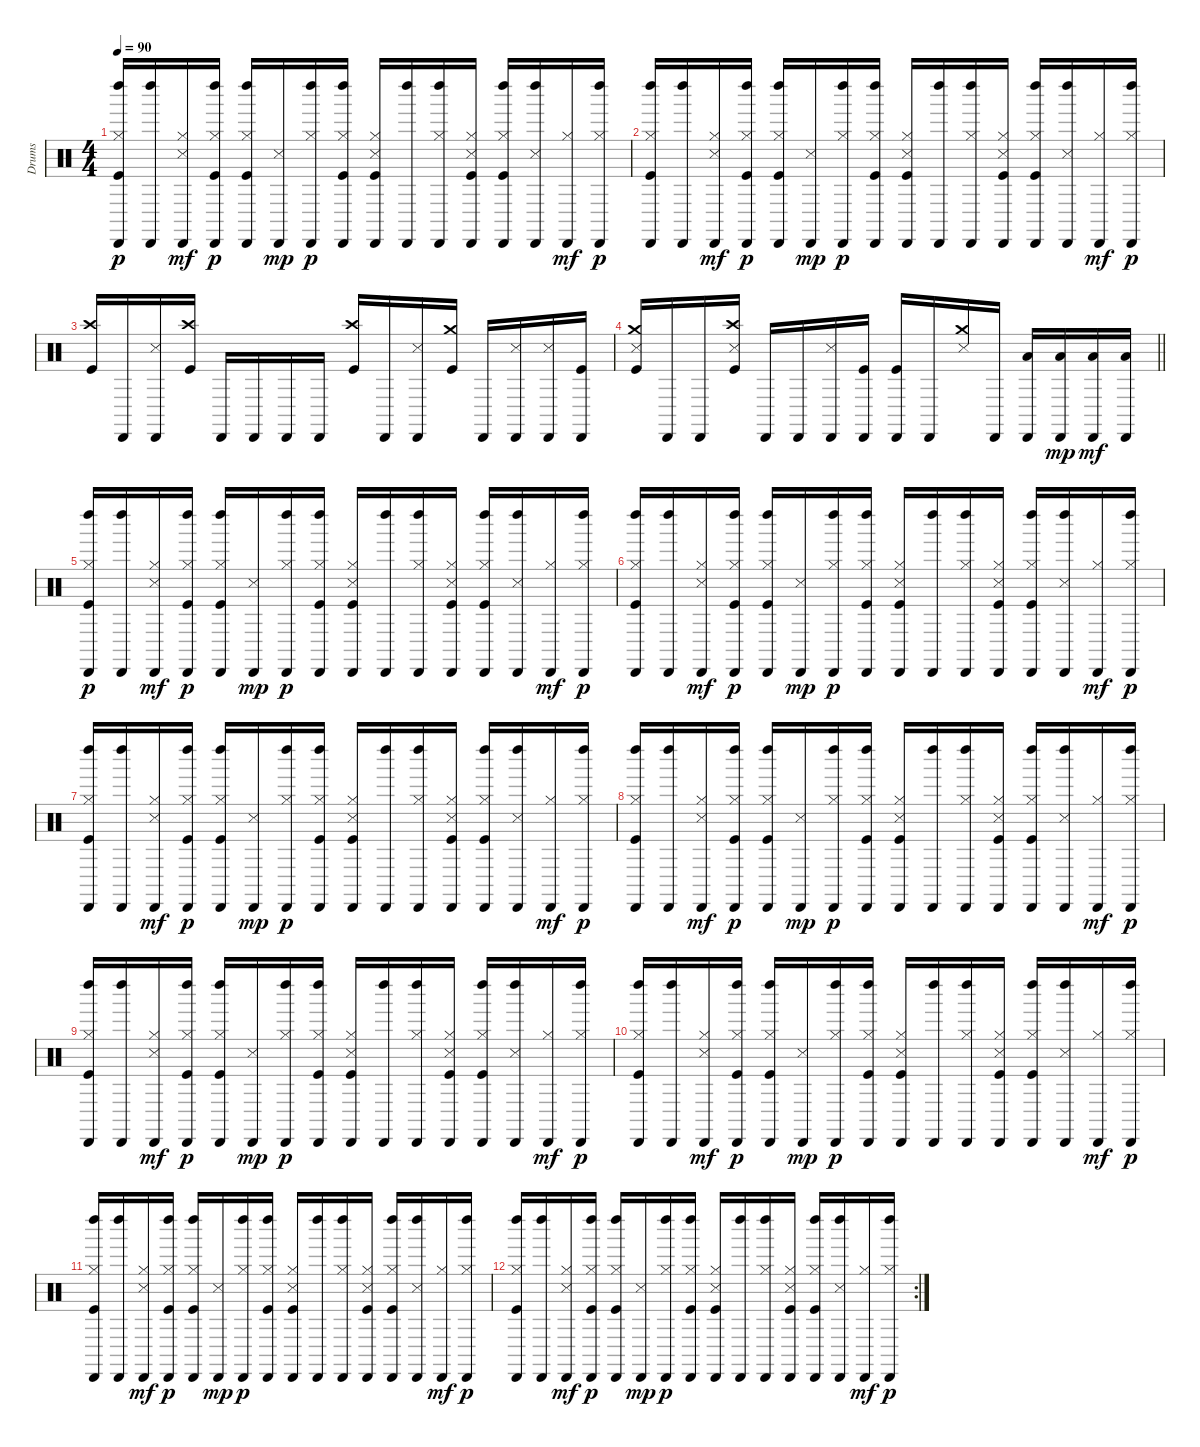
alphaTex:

\track ("Drums" "Drums") {instrument percussion}
\staff {score}
\articulation defaults
\ts (4 4)
\tempo 90
\clef neutral
\ks c
("Cabasa (hit)" "Hi-Hat (closed)" "Left Maraca (hit)" "Kick (hit)").16{dy p} ("Cabasa (hit)" "Left Maraca (hit)").16 ("Cabasa (hit)" "Hi-Hat (closed)" "Snare (side stick) 3").16{dy mf} ("Cabasa (hit)" "Hi-Hat (closed)" "Left Maraca (hit)" "Kick (hit)").16{dy p} ("Cabasa (hit)" "Hi-Hat (closed)" "Left Maraca (hit)" "Kick (hit)").16 ("Cabasa (hit)" "Snare (side stick) 3").16{dy mp} ("Cabasa (hit)" "Hi-Hat (closed)" "Left Maraca (hit)").16{dy p} ("Cabasa (hit)" "Hi-Hat (closed)" "Left Maraca (hit)" "Kick (hit)").16 ("Cabasa (hit)" "Hi-Hat (closed)" "Snare (side stick) 3" "Kick (hit)").16 ("Cabasa (hit)" "Left Maraca (hit)").16 ("Cabasa (hit)" "Hi-Hat (closed)" "Left Maraca (hit)").16 ("Cabasa (hit)" "Hi-Hat (closed)" "Snare (side stick) 3" "Kick (hit)").16 ("Cabasa (hit)" "Hi-Hat (closed)" "Left Maraca (hit)" "Kick (hit)").16 ("Cabasa (hit)" "Snare (side stick) 3" "Left Maraca (hit)").16 ("Cabasa (hit)" "Hi-Hat (closed)").16{dy mf} ("Cabasa (hit)" "Hi-Hat (closed)" "Left Maraca (hit)").16{dy p} |
("Cabasa (hit)" "Hi-Hat (closed)" "Left Maraca (hit)" "Kick (hit)").16 ("Cabasa (hit)" "Left Maraca (hit)").16 ("Cabasa (hit)" "Hi-Hat (closed)" "Snare (side stick) 3").16{dy mf} ("Cabasa (hit)" "Hi-Hat (closed)" "Left Maraca (hit)" "Kick (hit)").16{dy p} ("Cabasa (hit)" "Hi-Hat (closed)" "Left Maraca (hit)" "Kick (hit)").16 ("Cabasa (hit)" "Snare (side stick) 3").16{dy mp} ("Cabasa (hit)" "Hi-Hat (closed)" "Left Maraca (hit)").16{dy p} ("Cabasa (hit)" "Hi-Hat (closed)" "Left Maraca (hit)" "Kick (hit)").16 ("Cabasa (hit)" "Hi-Hat (closed)" "Snare (side stick) 3" "Kick (hit)").16 ("Cabasa (hit)" "Left Maraca (hit)").16 ("Cabasa (hit)" "Hi-Hat (closed)" "Left Maraca (hit)").16 ("Cabasa (hit)" "Hi-Hat (closed)" "Snare (side stick) 3" "Kick (hit)").16 ("Cabasa (hit)" "Hi-Hat (closed)" "Left Maraca (hit)" "Kick (hit)").16 ("Cabasa (hit)" "Snare (side stick) 3" "Left Maraca (hit)").16 ("Cabasa (hit)" "Hi-Hat (closed)").16{dy mf} ("Cabasa (hit)" "Hi-Hat (closed)" "Left Maraca (hit)").16{dy p} |
("Crash high (hit)" "Kick (hit)").16 "Cabasa (hit)".16 ("Cabasa (hit)" "Snare (side stick) 3").16 ("Crash high (hit)" "Kick (hit)").16 "Cabasa (hit)".16 "Cabasa (hit)".16 "Cabasa (hit)".16 "Cabasa (hit)".16 ("Crash high (hit)" "Kick (hit)").16 "Cabasa (hit)".16 ("Cabasa (hit)" "Snare (side stick) 3").16 ("Crash medium (hit)" "Kick (hit)").16 "Cabasa (hit)".16 ("Cabasa (hit)" "Snare (side stick) 3").16 ("Cabasa (hit)" "Snare (side stick) 3").16 ("Cabasa (hit)" "Kick (hit)").16 |
\barLineRight lightlight
("Crash medium (hit)" "Snare (side stick) 3" "Kick (hit)").16 "Cabasa (hit)".16 "Cabasa (hit)".16 ("Crash high (hit)" "Snare (side stick) 3" "Kick (hit)").16 "Cabasa (hit)".16 "Cabasa (hit)".16 ("Cabasa (hit)" "Snare (side stick) 3").16 ("Cabasa (hit)" "Kick (hit)").16 ("Cabasa (hit)" "Kick (hit)").16 "Cabasa (hit)".16 ("Crash medium (hit)" "Snare (side stick) 3").16 "Cabasa (hit)".16 ("Cabasa (hit)" "Low Floor Tom (hit)").16 ("Cabasa (hit)" "Low Floor Tom (hit)").16{dy mp} ("Cabasa (hit)" "Low Floor Tom (hit)").16{dy mf} ("Cabasa (hit)" "Low Floor Tom (hit)").16 |
("Cabasa (hit)" "Hi-Hat (closed)" "Left Maraca (hit)" "Kick (hit)").16{dy p} ("Cabasa (hit)" "Left Maraca (hit)").16 ("Cabasa (hit)" "Hi-Hat (closed)" "Snare (side stick) 3").16{dy mf} ("Cabasa (hit)" "Hi-Hat (closed)" "Left Maraca (hit)" "Kick (hit)").16{dy p} ("Cabasa (hit)" "Hi-Hat (closed)" "Left Maraca (hit)" "Kick (hit)").16 ("Cabasa (hit)" "Snare (side stick) 3").16{dy mp} ("Cabasa (hit)" "Hi-Hat (closed)" "Left Maraca (hit)").16{dy p} ("Cabasa (hit)" "Hi-Hat (closed)" "Left Maraca (hit)" "Kick (hit)").16 ("Cabasa (hit)" "Hi-Hat (closed)" "Snare (side stick) 3" "Kick (hit)").16 ("Cabasa (hit)" "Left Maraca (hit)").16 ("Cabasa (hit)" "Hi-Hat (closed)" "Left Maraca (hit)").16 ("Cabasa (hit)" "Hi-Hat (closed)" "Snare (side stick) 3" "Kick (hit)").16 ("Cabasa (hit)" "Hi-Hat (closed)" "Left Maraca (hit)" "Kick (hit)").16 ("Cabasa (hit)" "Snare (side stick) 3" "Left Maraca (hit)").16 ("Cabasa (hit)" "Hi-Hat (closed)").16{dy mf} ("Cabasa (hit)" "Hi-Hat (closed)" "Left Maraca (hit)").16{dy p} |
("Cabasa (hit)" "Hi-Hat (closed)" "Left Maraca (hit)" "Kick (hit)").16 ("Cabasa (hit)" "Left Maraca (hit)").16 ("Cabasa (hit)" "Hi-Hat (closed)" "Snare (side stick) 3").16{dy mf} ("Cabasa (hit)" "Hi-Hat (closed)" "Left Maraca (hit)" "Kick (hit)").16{dy p} ("Cabasa (hit)" "Hi-Hat (closed)" "Left Maraca (hit)" "Kick (hit)").16 ("Cabasa (hit)" "Snare (side stick) 3").16{dy mp} ("Cabasa (hit)" "Hi-Hat (closed)" "Left Maraca (hit)").16{dy p} ("Cabasa (hit)" "Hi-Hat (closed)" "Left Maraca (hit)" "Kick (hit)").16 ("Cabasa (hit)" "Hi-Hat (closed)" "Snare (side stick) 3" "Kick (hit)").16 ("Cabasa (hit)" "Left Maraca (hit)").16 ("Cabasa (hit)" "Hi-Hat (closed)" "Left Maraca (hit)").16 ("Cabasa (hit)" "Hi-Hat (closed)" "Snare (side stick) 3" "Kick (hit)").16 ("Cabasa (hit)" "Hi-Hat (closed)" "Left Maraca (hit)" "Kick (hit)").16 ("Cabasa (hit)" "Snare (side stick) 3" "Left Maraca (hit)").16 ("Cabasa (hit)" "Hi-Hat (closed)").16{dy mf} ("Cabasa (hit)" "Hi-Hat (closed)" "Left Maraca (hit)").16{dy p} |
("Cabasa (hit)" "Hi-Hat (closed)" "Left Maraca (hit)" "Kick (hit)").16 ("Cabasa (hit)" "Left Maraca (hit)").16 ("Cabasa (hit)" "Hi-Hat (closed)" "Snare (side stick) 3").16{dy mf} ("Cabasa (hit)" "Hi-Hat (closed)" "Left Maraca (hit)" "Kick (hit)").16{dy p} ("Cabasa (hit)" "Hi-Hat (closed)" "Left Maraca (hit)" "Kick (hit)").16 ("Cabasa (hit)" "Snare (side stick) 3").16{dy mp} ("Cabasa (hit)" "Hi-Hat (closed)" "Left Maraca (hit)").16{dy p} ("Cabasa (hit)" "Hi-Hat (closed)" "Left Maraca (hit)" "Kick (hit)").16 ("Cabasa (hit)" "Hi-Hat (closed)" "Snare (side stick) 3" "Kick (hit)").16 ("Cabasa (hit)" "Left Maraca (hit)").16 ("Cabasa (hit)" "Hi-Hat (closed)" "Left Maraca (hit)").16 ("Cabasa (hit)" "Hi-Hat (closed)" "Snare (side stick) 3" "Kick (hit)").16 ("Cabasa (hit)" "Hi-Hat (closed)" "Left Maraca (hit)" "Kick (hit)").16 ("Cabasa (hit)" "Snare (side stick) 3" "Left Maraca (hit)").16 ("Cabasa (hit)" "Hi-Hat (closed)").16{dy mf} ("Cabasa (hit)" "Hi-Hat (closed)" "Left Maraca (hit)").16{dy p} |
("Cabasa (hit)" "Hi-Hat (closed)" "Left Maraca (hit)" "Kick (hit)").16 ("Cabasa (hit)" "Left Maraca (hit)").16 ("Cabasa (hit)" "Hi-Hat (closed)" "Snare (side stick) 3").16{dy mf} ("Cabasa (hit)" "Hi-Hat (closed)" "Left Maraca (hit)" "Kick (hit)").16{dy p} ("Cabasa (hit)" "Hi-Hat (closed)" "Left Maraca (hit)" "Kick (hit)").16 ("Cabasa (hit)" "Snare (side stick) 3").16{dy mp} ("Cabasa (hit)" "Hi-Hat (closed)" "Left Maraca (hit)").16{dy p} ("Cabasa (hit)" "Hi-Hat (closed)" "Left Maraca (hit)" "Kick (hit)").16 ("Cabasa (hit)" "Hi-Hat (closed)" "Snare (side stick) 3" "Kick (hit)").16 ("Cabasa (hit)" "Left Maraca (hit)").16 ("Cabasa (hit)" "Hi-Hat (closed)" "Left Maraca (hit)").16 ("Cabasa (hit)" "Hi-Hat (closed)" "Snare (side stick) 3" "Kick (hit)").16 ("Cabasa (hit)" "Hi-Hat (closed)" "Left Maraca (hit)" "Kick (hit)").16 ("Cabasa (hit)" "Snare (side stick) 3" "Left Maraca (hit)").16 ("Cabasa (hit)" "Hi-Hat (closed)").16{dy mf} ("Cabasa (hit)" "Hi-Hat (closed)" "Left Maraca (hit)").16{dy p} |
("Cabasa (hit)" "Hi-Hat (closed)" "Left Maraca (hit)" "Kick (hit)").16 ("Cabasa (hit)" "Left Maraca (hit)").16 ("Cabasa (hit)" "Hi-Hat (closed)" "Snare (side stick) 3").16{dy mf} ("Cabasa (hit)" "Hi-Hat (closed)" "Left Maraca (hit)" "Kick (hit)").16{dy p} ("Cabasa (hit)" "Hi-Hat (closed)" "Left Maraca (hit)" "Kick (hit)").16 ("Cabasa (hit)" "Snare (side stick) 3").16{dy mp} ("Cabasa (hit)" "Hi-Hat (closed)" "Left Maraca (hit)").16{dy p} ("Cabasa (hit)" "Hi-Hat (closed)" "Left Maraca (hit)" "Kick (hit)").16 ("Cabasa (hit)" "Hi-Hat (closed)" "Snare (side stick) 3" "Kick (hit)").16 ("Cabasa (hit)" "Left Maraca (hit)").16 ("Cabasa (hit)" "Hi-Hat (closed)" "Left Maraca (hit)").16 ("Cabasa (hit)" "Hi-Hat (closed)" "Snare (side stick) 3" "Kick (hit)").16 ("Cabasa (hit)" "Hi-Hat (closed)" "Left Maraca (hit)" "Kick (hit)").16 ("Cabasa (hit)" "Snare (side stick) 3" "Left Maraca (hit)").16 ("Cabasa (hit)" "Hi-Hat (closed)").16{dy mf} ("Cabasa (hit)" "Hi-Hat (closed)" "Left Maraca (hit)").16{dy p} |
("Cabasa (hit)" "Hi-Hat (closed)" "Left Maraca (hit)" "Kick (hit)").16 ("Cabasa (hit)" "Left Maraca (hit)").16 ("Cabasa (hit)" "Hi-Hat (closed)" "Snare (side stick) 3").16{dy mf} ("Cabasa (hit)" "Hi-Hat (closed)" "Left Maraca (hit)" "Kick (hit)").16{dy p} ("Cabasa (hit)" "Hi-Hat (closed)" "Left Maraca (hit)" "Kick (hit)").16 ("Cabasa (hit)" "Snare (side stick) 3").16{dy mp} ("Cabasa (hit)" "Hi-Hat (closed)" "Left Maraca (hit)").16{dy p} ("Cabasa (hit)" "Hi-Hat (closed)" "Left Maraca (hit)" "Kick (hit)").16 ("Cabasa (hit)" "Hi-Hat (closed)" "Snare (side stick) 3" "Kick (hit)").16 ("Cabasa (hit)" "Left Maraca (hit)").16 ("Cabasa (hit)" "Hi-Hat (closed)" "Left Maraca (hit)").16 ("Cabasa (hit)" "Hi-Hat (closed)" "Snare (side stick) 3" "Kick (hit)").16 ("Cabasa (hit)" "Hi-Hat (closed)" "Left Maraca (hit)" "Kick (hit)").16 ("Cabasa (hit)" "Snare (side stick) 3" "Left Maraca (hit)").16 ("Cabasa (hit)" "Hi-Hat (closed)").16{dy mf} ("Cabasa (hit)" "Hi-Hat (closed)" "Left Maraca (hit)").16{dy p} |
("Cabasa (hit)" "Hi-Hat (closed)" "Left Maraca (hit)" "Kick (hit)").16 ("Cabasa (hit)" "Left Maraca (hit)").16 ("Cabasa (hit)" "Hi-Hat (closed)" "Snare (side stick) 3").16{dy mf} ("Cabasa (hit)" "Hi-Hat (closed)" "Left Maraca (hit)" "Kick (hit)").16{dy p} ("Cabasa (hit)" "Hi-Hat (closed)" "Left Maraca (hit)" "Kick (hit)").16 ("Cabasa (hit)" "Snare (side stick) 3").16{dy mp} ("Cabasa (hit)" "Hi-Hat (closed)" "Left Maraca (hit)").16{dy p} ("Cabasa (hit)" "Hi-Hat (closed)" "Left Maraca (hit)" "Kick (hit)").16 ("Cabasa (hit)" "Hi-Hat (closed)" "Snare (side stick) 3" "Kick (hit)").16 ("Cabasa (hit)" "Left Maraca (hit)").16 ("Cabasa (hit)" "Hi-Hat (closed)" "Left Maraca (hit)").16 ("Cabasa (hit)" "Hi-Hat (closed)" "Snare (side stick) 3" "Kick (hit)").16 ("Cabasa (hit)" "Hi-Hat (closed)" "Left Maraca (hit)" "Kick (hit)").16 ("Cabasa (hit)" "Snare (side stick) 3" "Left Maraca (hit)").16 ("Cabasa (hit)" "Hi-Hat (closed)").16{dy mf} ("Cabasa (hit)" "Hi-Hat (closed)" "Left Maraca (hit)").16{dy p} |
\rc 2
("Cabasa (hit)" "Hi-Hat (closed)" "Left Maraca (hit)" "Kick (hit)").16 ("Cabasa (hit)" "Left Maraca (hit)").16 ("Cabasa (hit)" "Hi-Hat (closed)" "Snare (side stick) 3").16{dy mf} ("Cabasa (hit)" "Hi-Hat (closed)" "Left Maraca (hit)" "Kick (hit)").16{dy p} ("Cabasa (hit)" "Hi-Hat (closed)" "Left Maraca (hit)" "Kick (hit)").16 ("Cabasa (hit)" "Snare (side stick) 3").16{dy mp} ("Cabasa (hit)" "Hi-Hat (closed)" "Left Maraca (hit)").16{dy p} ("Cabasa (hit)" "Hi-Hat (closed)" "Left Maraca (hit)" "Kick (hit)").16 ("Cabasa (hit)" "Hi-Hat (closed)" "Snare (side stick) 3" "Kick (hit)").16 ("Cabasa (hit)" "Left Maraca (hit)").16 ("Cabasa (hit)" "Hi-Hat (closed)" "Left Maraca (hit)").16 ("Cabasa (hit)" "Hi-Hat (closed)" "Snare (side stick) 3" "Kick (hit)").16 ("Cabasa (hit)" "Hi-Hat (closed)" "Left Maraca (hit)" "Kick (hit)").16 ("Cabasa (hit)" "Snare (side stick) 3" "Left Maraca (hit)").16 ("Cabasa (hit)" "Hi-Hat (closed)").16{dy mf} ("Cabasa (hit)" "Hi-Hat (closed)" "Left Maraca (hit)").16{dy p}
